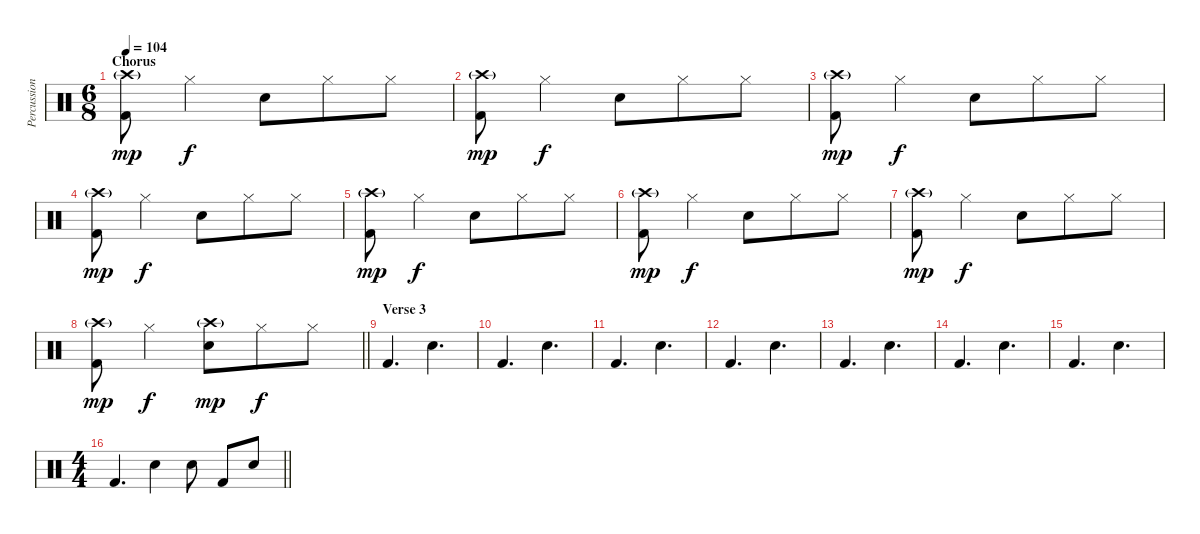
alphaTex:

\track ("Percussion" "Percussion") {instrument percussion}
\staff {score}
\articulation defaults
\ts (6 8)
\section ("" "Chorus")
\tempo 104
\clef neutral
\ks c
("Crash high (hit)"{g} "Kick (hit) 2").8{dy mp} "Hi-Hat (closed)".4{dy f} "Snare (hit) 2".8 "Hi-Hat (closed)".8 "Hi-Hat (closed)".8 |
("Crash high (hit)"{g} "Kick (hit) 2").8{dy mp} "Hi-Hat (closed)".4{dy f} "Snare (hit) 2".8 "Hi-Hat (closed)".8 "Hi-Hat (closed)".8 |
("Crash high (hit)"{g} "Kick (hit) 2").8{dy mp} "Hi-Hat (closed)".4{dy f} "Snare (hit) 2".8 "Hi-Hat (closed)".8 "Hi-Hat (closed)".8 |
("Crash high (hit)"{g} "Kick (hit) 2").8{dy mp} "Hi-Hat (closed)".4{dy f} "Snare (hit) 2".8 "Hi-Hat (closed)".8 "Hi-Hat (closed)".8 |
("Crash high (hit)"{g} "Kick (hit) 2").8{dy mp} "Hi-Hat (closed)".4{dy f} "Snare (hit) 2".8 "Hi-Hat (closed)".8 "Hi-Hat (closed)".8 |
("Crash high (hit)"{g} "Kick (hit) 2").8{dy mp} "Hi-Hat (closed)".4{dy f} "Snare (hit) 2".8 "Hi-Hat (closed)".8 "Hi-Hat (closed)".8 |
("Crash high (hit)"{g} "Kick (hit) 2").8{dy mp} "Hi-Hat (closed)".4{dy f} "Snare (hit) 2".8 "Hi-Hat (closed)".8 "Hi-Hat (closed)".8 |
\barLineRight lightlight
("Crash high (hit)"{g} "Kick (hit) 2").8{dy mp} "Hi-Hat (closed)".4{dy f} ("Crash high (hit)"{g} "Snare (hit) 2").8{dy mp} "Hi-Hat (closed)".8{dy f} "Hi-Hat (closed)".8 |
\section ("" "Verse 3")
"Kick (hit) 2".4{d} "Snare (hit) 2".4{d} |
"Kick (hit) 2".4{d} "Snare (hit) 2".4{d} |
"Kick (hit) 2".4{d} "Snare (hit) 2".4{d} |
"Kick (hit) 2".4{d} "Snare (hit) 2".4{d} |
"Kick (hit) 2".4{d} "Snare (hit) 2".4{d} |
"Kick (hit) 2".4{d} "Snare (hit) 2".4{d} |
"Kick (hit) 2".4{d} "Snare (hit) 2".4{d} |
\ts (4 4)
\barLineRight lightlight "Kick (hit) 2".4{d} "Snare (hit) 2".4 "Snare (hit) 2".8 "Kick (hit) 2".8 "Snare (hit) 2".8
